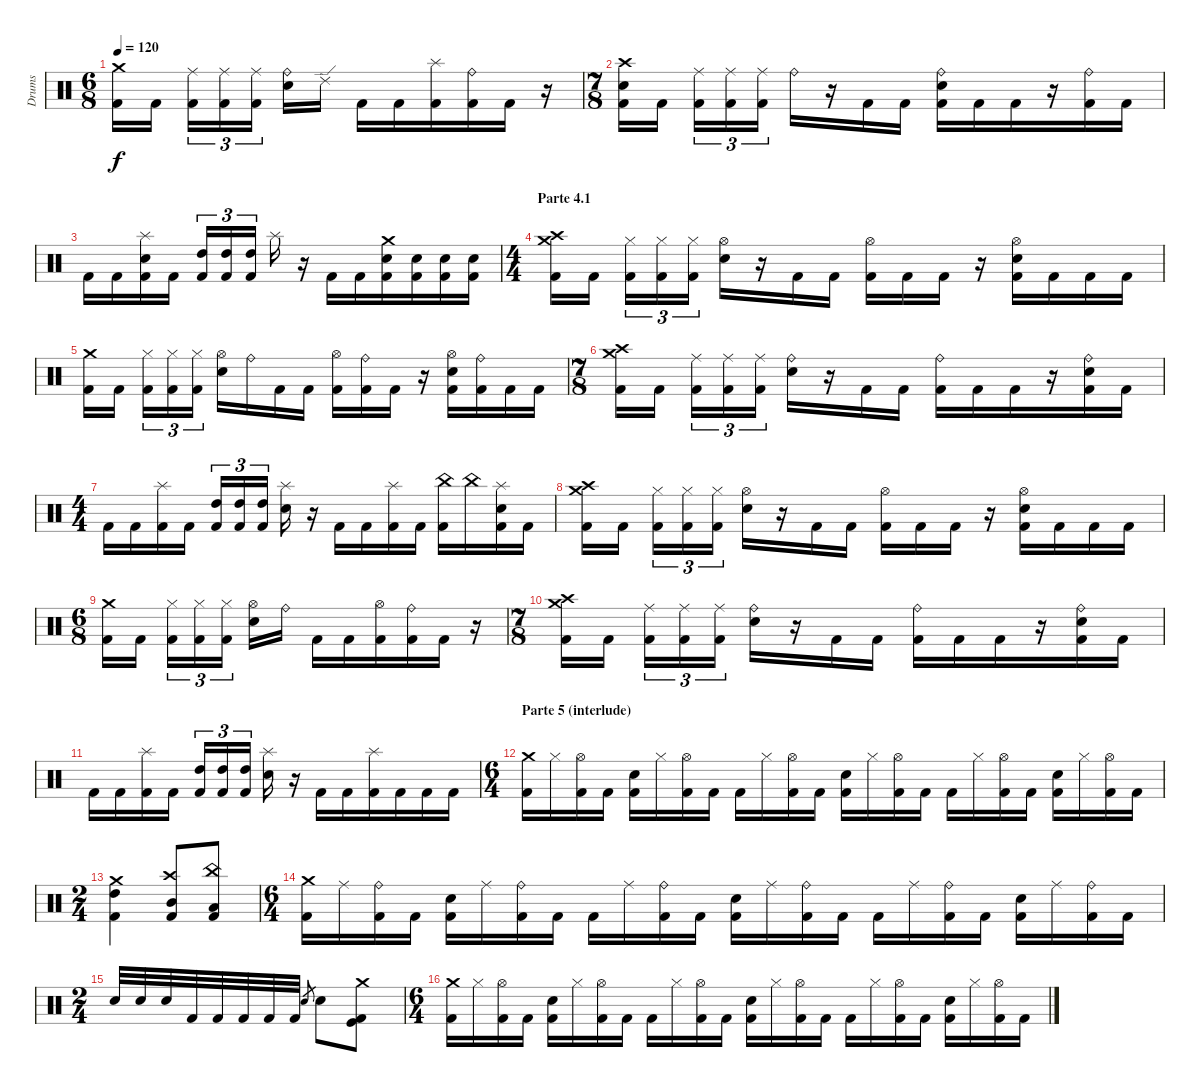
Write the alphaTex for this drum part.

\track ("Drums" "Drums") {instrument percussion}
\staff {score}
\articulation defaults
\ts (6 8)
\tempo 120
\clef neutral
\ks c
("Crash medium (hit)" "Kick (hit) 2").16{dy f} "Kick (hit) 2".16 ("Ride (middle)" "Kick (hit) 2").16{tu (3 2)} ("Ride (middle)" "Kick (hit) 2").16{tu (3 2)} ("Ride (middle)" "Kick (hit) 2").16{tu (3 2)} ("Ride (bell)" "Electric Snare (hit)").16 "Ride (edge) 2".16 "Kick (hit) 2".16 "Kick (hit) 2".16 ("Splash (hit)" "Kick (hit) 2").16 ("Ride (bell)" "Kick (hit) 2").16 "Kick (hit) 2".16 r.16 |
\ts (7 8)
("Crash high (hit)" "Electric Snare (hit)" "Kick (hit) 2").16 "Kick (hit) 2".16 ("Ride (middle)" "Kick (hit) 2").16{tu (3 2)} ("Ride (middle)" "Kick (hit) 2").16{tu (3 2)} ("Ride (middle)" "Kick (hit) 2").16{tu (3 2)} "Ride (bell)".16 r.16 "Kick (hit) 2".16 "Kick (hit) 2".16 ("Ride (bell)" "Electric Snare (hit)" "Kick (hit) 2").16 "Kick (hit) 2".16 "Kick (hit) 2".16 r.16 ("Ride (bell)" "Kick (hit) 2").16 "Kick (hit) 2".16 |
"Kick (hit) 2".16 "Kick (hit) 2".16 ("Splash (hit)" "Electric Snare (hit)" "Kick (hit) 2").16 "Kick (hit) 2".16 ("High Tom (hit)" "Kick (hit) 2").16{tu (3 2)} ("High Tom (hit)" "Kick (hit) 2").16{tu (3 2)} ("High Tom (hit)" "Kick (hit) 2").16{tu (3 2)} "Splash (hit)".16 r.16 "Kick (hit) 2".16 "Kick (hit) 2".16 ("Crash medium (hit)" "Electric Snare (hit)" "Kick (hit) 2").16 ("Electric Snare (hit)" "Kick (hit) 2").16 ("Electric Snare (hit)" "Kick (hit) 2").16 ("Electric Snare (hit)" "Kick (hit) 2").16 |
\ts (4 4)
\section ("" "Parte 4.1")
("Crash medium (hit)" "Crash high (hit)" "Kick (hit) 2").16 "Kick (hit) 2".16 ("Hi-Hat (closed)" "Kick (hit) 2").16{tu (3 2)} ("Hi-Hat (closed)" "Kick (hit) 2").16{tu (3 2)} ("Hi-Hat (closed)" "Kick (hit) 2").16{tu (3 2)} ("Hi-Hat (open)" "Electric Snare (hit)").16 r.16 "Kick (hit) 2".16 "Kick (hit) 2".16 ("Hi-Hat (open)" "Kick (hit) 2").16 "Kick (hit) 2".16 "Kick (hit) 2".16 r.16 ("Hi-Hat (open)" "Electric Snare (hit)" "Kick (hit) 2").16 "Kick (hit) 2".16 "Kick (hit) 2".16 "Kick (hit) 2".16 |
("Crash medium (hit)" "Kick (hit) 2").16 "Kick (hit) 2".16 ("Hi-Hat (closed)" "Kick (hit) 2").16{tu (3 2)} ("Hi-Hat (closed)" "Kick (hit) 2").16{tu (3 2)} ("Hi-Hat (closed)" "Kick (hit) 2").16{tu (3 2)} ("Hi-Hat (open)" "Electric Snare (hit)").16 "Ride (bell)".16 "Kick (hit) 2".16 "Kick (hit) 2".16 ("Hi-Hat (open)" "Kick (hit) 2").16 ("Ride (bell)" "Kick (hit) 2").16 "Kick (hit) 2".16 r.16 ("Hi-Hat (open)" "Electric Snare (hit)" "Kick (hit) 2").16 ("Ride (bell)" "Kick (hit) 2").16 "Kick (hit) 2".16 "Kick (hit) 2".16 |
\ts (7 8)
("Crash high (hit)" "Crash medium (hit)" "Kick (hit) 2").16 "Kick (hit) 2".16 ("Ride (middle)" "Kick (hit) 2").16{tu (3 2)} ("Ride (middle)" "Kick (hit) 2").16{tu (3 2)} ("Ride (middle)" "Kick (hit) 2").16{tu (3 2)} ("Ride (bell)" "Electric Snare (hit)").16 r.16 "Kick (hit) 2".16 "Kick (hit) 2".16 ("Ride (bell)" "Kick (hit) 2").16 "Kick (hit) 2".16 "Kick (hit) 2".16 r.16 ("Ride (bell)" "Electric Snare (hit)" "Kick (hit) 2").16 "Kick (hit) 2".16 |
\ts (4 4)
"Kick (hit) 2".16 "Kick (hit) 2".16 ("Splash (hit)" "Kick (hit) 2").16 "Kick (hit) 2".16 ("High Tom (hit)" "Kick (hit) 2").16{tu (3 2)} ("High Tom (hit)" "Kick (hit) 2").16{tu (3 2)} ("High Tom (hit)" "Kick (hit) 2").16{tu (3 2)} ("Splash (hit)" "Electric Snare (hit)").16 r.16 "Kick (hit) 2".16 "Kick (hit) 2".16 ("Splash (hit)" "Kick (hit) 2").16 "Kick (hit) 2".16 ("China (hit)" "Kick (hit) 2").16 "China (hit)".16 ("Splash (hit)" "Electric Snare (hit)" "Kick (hit) 2").16 "Kick (hit) 2".16 |
("Crash medium (hit)" "Crash high (hit)" "Kick (hit) 2").16 "Kick (hit) 2".16 ("Hi-Hat (closed)" "Kick (hit) 2").16{tu (3 2)} ("Hi-Hat (closed)" "Kick (hit) 2").16{tu (3 2)} ("Hi-Hat (closed)" "Kick (hit) 2").16{tu (3 2)} ("Hi-Hat (open)" "Electric Snare (hit)").16 r.16 "Kick (hit) 2".16 "Kick (hit) 2".16 ("Hi-Hat (open)" "Kick (hit) 2").16 "Kick (hit) 2".16 "Kick (hit) 2".16 r.16 ("Hi-Hat (open)" "Electric Snare (hit)" "Kick (hit) 2").16 "Kick (hit) 2".16 "Kick (hit) 2".16 "Kick (hit) 2".16 |
\ts (6 8)
("Crash medium (hit)" "Kick (hit) 2").16 "Kick (hit) 2".16 ("Hi-Hat (closed)" "Kick (hit) 2").16{tu (3 2)} ("Hi-Hat (closed)" "Kick (hit) 2").16{tu (3 2)} ("Hi-Hat (closed)" "Kick (hit) 2").16{tu (3 2)} ("Hi-Hat (open)" "Electric Snare (hit)").16 "Ride (bell)".16 "Kick (hit) 2".16 "Kick (hit) 2".16 ("Hi-Hat (open)" "Kick (hit) 2").16 ("Ride (bell)" "Kick (hit) 2").16 "Kick (hit) 2".16 r.16 |
\ts (7 8)
("Crash high (hit)" "Crash medium (hit)" "Kick (hit) 2").16 "Kick (hit) 2".16 ("Ride (middle)" "Kick (hit) 2").16{tu (3 2)} ("Ride (middle)" "Kick (hit) 2").16{tu (3 2)} ("Ride (middle)" "Kick (hit) 2").16{tu (3 2)} ("Ride (bell)" "Electric Snare (hit)").16 r.16 "Kick (hit) 2".16 "Kick (hit) 2".16 ("Ride (bell)" "Kick (hit) 2").16 "Kick (hit) 2".16 "Kick (hit) 2".16 r.16 ("Ride (bell)" "Electric Snare (hit)" "Kick (hit) 2").16 "Kick (hit) 2".16 |
"Kick (hit) 2".16 "Kick (hit) 2".16 ("Splash (hit)" "Kick (hit) 2").16 "Kick (hit) 2".16 ("High Tom (hit)" "Kick (hit) 2").16{tu (3 2)} ("High Tom (hit)" "Kick (hit) 2").16{tu (3 2)} ("High Tom (hit)" "Kick (hit) 2").16{tu (3 2)} ("Splash (hit)" "Electric Snare (hit)").16 r.16 "Kick (hit) 2".16 "Kick (hit) 2".16 ("Splash (hit)" "Kick (hit) 2").16 "Kick (hit) 2".16 "Kick (hit) 2".16 "Kick (hit) 2".16 |
\ts (6 4)
\section ("" "Parte 5 (interlude)")
("Crash medium (hit)" "Kick (hit) 2").16 "Hi-Hat (closed)".16 ("Hi-Hat (open)" "Kick (hit) 2").16 "Kick (hit) 2".16 ("Electric Snare (hit)" "Kick (hit) 2").16 "Hi-Hat (closed)".16 ("Hi-Hat (open)" "Kick (hit) 2").16 "Kick (hit) 2".16 "Kick (hit) 2".16 "Hi-Hat (closed)".16 ("Hi-Hat (open)" "Kick (hit) 2").16 "Kick (hit) 2".16 ("Electric Snare (hit)" "Kick (hit) 2").16 "Hi-Hat (closed)".16 ("Hi-Hat (open)" "Kick (hit) 2").16 "Kick (hit) 2".16 "Kick (hit) 2".16 "Hi-Hat (closed)".16 ("Hi-Hat (open)" "Kick (hit) 2").16 "Kick (hit) 2".16 ("Electric Snare (hit)" "Kick (hit) 2").16 "Hi-Hat (closed)".16 ("Hi-Hat (open)" "Kick (hit) 2").16 "Kick (hit) 2".16 |
\ts (2 4)
("Crash medium (hit)" "High Tom (hit)" "Kick (hit) 2").4 ("Crash high (hit)" "Mid Tom (hit)" "Kick (hit) 2").8 ("China (hit)" "Low Tom (hit)" "Kick (hit) 2").8 |
\ts (6 4)
("Crash medium (hit)" "Kick (hit) 2").16 "Ride (middle)".16 ("Ride (bell)" "Kick (hit) 2").16 "Kick (hit) 2".16 ("Electric Snare (hit)" "Kick (hit) 2").16 "Ride (middle)".16 ("Ride (bell)" "Kick (hit) 2").16 "Kick (hit) 2".16 "Kick (hit) 2".16 "Ride (middle)".16 ("Ride (bell)" "Kick (hit) 2").16 "Kick (hit) 2".16 ("Electric Snare (hit)" "Kick (hit) 2").16 "Ride (middle)".16 ("Ride (bell)" "Kick (hit) 2").16 "Kick (hit) 2".16 "Kick (hit) 2".16 "Ride (middle)".16 ("Ride (bell)" "Kick (hit) 2").16 "Kick (hit) 2".16 ("Electric Snare (hit)" "Kick (hit) 2").16 "Ride (middle)".16 ("Ride (bell)" "Kick (hit) 2").16 "Kick (hit) 2".16 |
\ts (2 4)
"Electric Snare (hit)".32 "Electric Snare (hit)".32 "Electric Snare (hit)".32 "Kick (hit) 2".32 "Kick (hit) 2".32 "Kick (hit) 2".32 "Kick (hit) 2".32 "Kick (hit) 2".32 "Electric Snare (hit)".8{gr} "Electric Snare (hit)".8 ("Crash medium (hit)" "Kick (hit) 2" "Kick (hit)").8 |
\ts (6 4)
("Crash medium (hit)" "Kick (hit) 2").16 "Hi-Hat (closed)".16 ("Hi-Hat (open)" "Kick (hit) 2").16 "Kick (hit) 2".16 ("Electric Snare (hit)" "Kick (hit) 2").16 "Hi-Hat (closed)".16 ("Hi-Hat (open)" "Kick (hit) 2").16 "Kick (hit) 2".16 "Kick (hit) 2".16 "Hi-Hat (closed)".16 ("Hi-Hat (open)" "Kick (hit) 2").16 "Kick (hit) 2".16 ("Electric Snare (hit)" "Kick (hit) 2").16 "Hi-Hat (closed)".16 ("Hi-Hat (open)" "Kick (hit) 2").16 "Kick (hit) 2".16 "Kick (hit) 2".16 "Hi-Hat (closed)".16 ("Hi-Hat (open)" "Kick (hit) 2").16 "Kick (hit) 2".16 ("Electric Snare (hit)" "Kick (hit) 2").16 "Hi-Hat (closed)".16 ("Hi-Hat (open)" "Kick (hit) 2").16 "Kick (hit) 2".16
